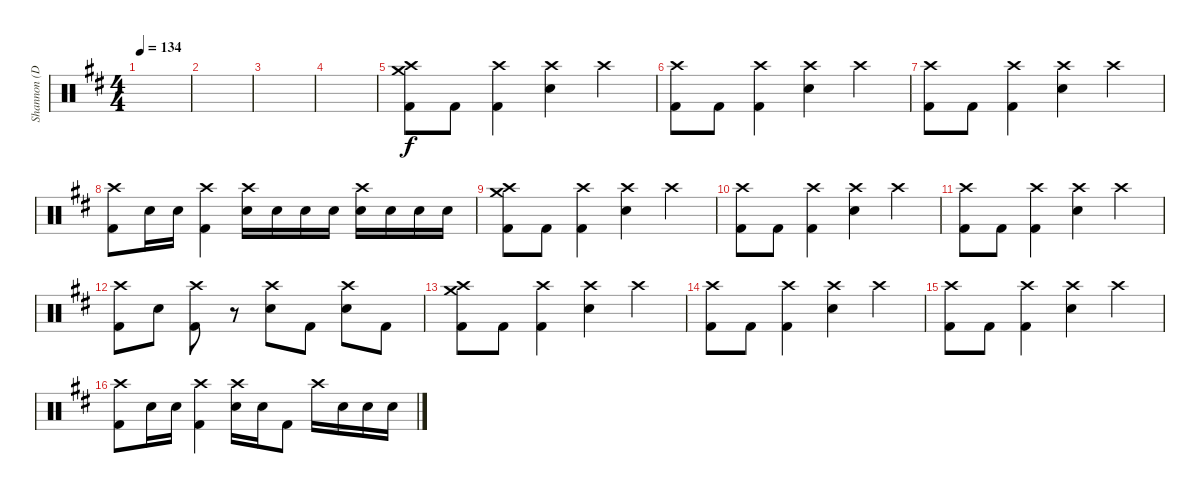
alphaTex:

\track ("Shannon (Drums)" "Shannon (D") {instrument percussion}
\staff {score}
\articulation defaults
\ts (4 4)
\tempo 134
\clef neutral
\ks d
|
|
|
|
("Crash high (hit)" "Crash medium (hit)" "Kick (hit) 2").8 "Kick (hit) 2".8 ("Crash high (hit)" "Kick (hit) 2").4 ("Crash high (hit)" "Electric Snare (hit)").4 "Crash high (hit)".4 |
("Crash high (hit)" "Kick (hit) 2").8 "Kick (hit) 2".8 ("Crash high (hit)" "Kick (hit) 2").4 ("Crash high (hit)" "Electric Snare (hit)").4 "Crash high (hit)".4 |
("Crash high (hit)" "Kick (hit) 2").8 "Kick (hit) 2".8 ("Crash high (hit)" "Kick (hit) 2").4 ("Crash high (hit)" "Electric Snare (hit)").4 "Crash high (hit)".4 |
("Crash high (hit)" "Kick (hit) 2").8 "Electric Snare (hit)".16 "Electric Snare (hit)".16 ("Crash high (hit)" "Kick (hit) 2").4 ("Crash high (hit)" "Electric Snare (hit)").16 "Electric Snare (hit)".16 "Electric Snare (hit)".16 "Electric Snare (hit)".16 ("Crash high (hit)" "Electric Snare (hit)").16 "Electric Snare (hit)".16 "Electric Snare (hit)".16 "Electric Snare (hit)".16 |
("Crash high (hit)" "Crash medium (hit)" "Kick (hit) 2").8 "Kick (hit) 2".8 ("Crash high (hit)" "Kick (hit) 2").4 ("Crash high (hit)" "Electric Snare (hit)").4 "Crash high (hit)".4 |
("Crash high (hit)" "Kick (hit) 2").8 "Kick (hit) 2".8 ("Crash high (hit)" "Kick (hit) 2").4 ("Crash high (hit)" "Electric Snare (hit)").4 "Crash high (hit)".4 |
("Crash high (hit)" "Kick (hit) 2").8 "Kick (hit) 2".8 ("Crash high (hit)" "Kick (hit) 2").4 ("Crash high (hit)" "Electric Snare (hit)").4 "Crash high (hit)".4 |
("Crash high (hit)" "Kick (hit) 2").8 "Electric Snare (hit)".8 ("Crash high (hit)" "Kick (hit) 2").8 r.8 ("Crash high (hit)" "Electric Snare (hit)").8 "Kick (hit) 2".8 ("Crash high (hit)" "Electric Snare (hit)").8 "Kick (hit) 2".8 |
("Crash high (hit)" "Crash medium (hit)" "Kick (hit) 2").8 "Kick (hit) 2".8 ("Crash high (hit)" "Kick (hit) 2").4 ("Crash high (hit)" "Electric Snare (hit)").4 "Crash high (hit)".4 |
("Crash high (hit)" "Kick (hit) 2").8 "Kick (hit) 2".8 ("Crash high (hit)" "Kick (hit) 2").4 ("Crash high (hit)" "Electric Snare (hit)").4 "Crash high (hit)".4 |
("Crash high (hit)" "Kick (hit) 2").8 "Kick (hit) 2".8 ("Crash high (hit)" "Kick (hit) 2").4 ("Crash high (hit)" "Electric Snare (hit)").4 "Crash high (hit)".4 |
("Crash high (hit)" "Kick (hit) 2").8 "Electric Snare (hit)".16 "Electric Snare (hit)".16 ("Crash high (hit)" "Kick (hit) 2").4 ("Crash high (hit)" "Electric Snare (hit)").16 "Electric Snare (hit)".16 "Kick (hit) 2".8 "Crash high (hit)".16 "Electric Snare (hit)".16 "Electric Snare (hit)".16 "Electric Snare (hit)".16
